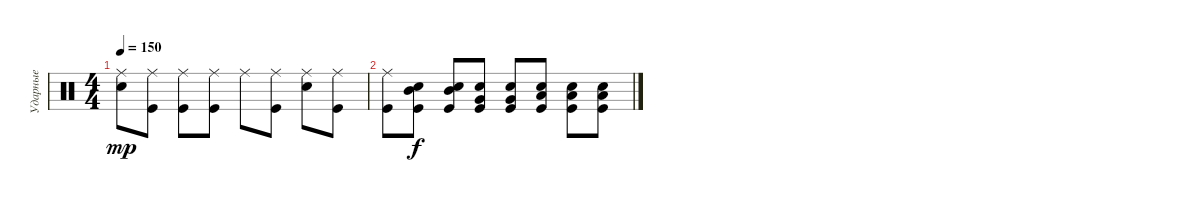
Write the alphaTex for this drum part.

\track ("Ударные" "Ударные") {instrument percussion}
\staff {score}
\articulation defaults
\ts (4 4)
\tempo 150
\clef neutral
\ks c
("Ride (middle)" "Electric Snare (hit)").8{dy mp} ("Ride (middle)" "Kick (hit)").8 ("Ride (middle)" "Kick (hit)").8 ("Ride (middle)" "Kick (hit)").8 "Ride (middle)".8 ("Ride (middle)" "Kick (hit)").8 ("Ride (middle)" "Electric Snare (hit)").8 ("Ride (middle)" "Kick (hit)").8 |
("Ride (middle)" "Kick (hit)").8 ("Mid Tom (hit)" "Electric Snare (hit)" "Kick (hit)").8{dy f} ("Mid Tom (hit)" "Electric Snare (hit)" "Kick (hit)").8 ("Very Low Tom (hit)" "Electric Snare (hit)" "Kick (hit)").8 ("Very Low Tom (hit)" "Electric Snare (hit)" "Kick (hit)").8 ("Low Floor Tom (hit)" "Electric Snare (hit)" "Kick (hit)").8 ("Low Floor Tom (hit)" "Electric Snare (hit)" "Kick (hit)").8 ("Low Floor Tom (hit)" "Electric Snare (hit)" "Kick (hit)").8
